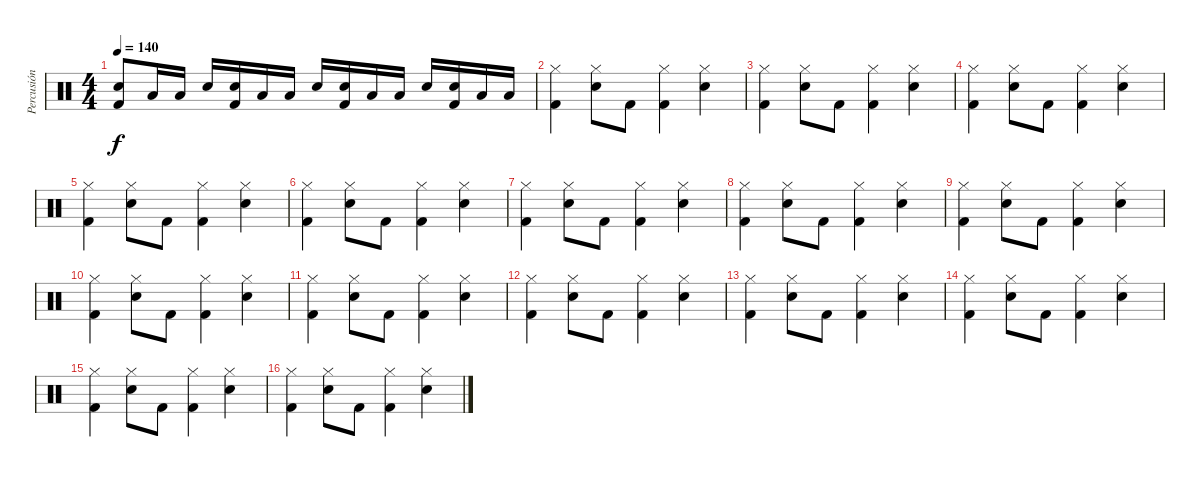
\track ("Percusión" "Percusión") {instrument percussion}
\staff {score}
\articulation defaults
\ts (4 4)
\tempo 140
\clef neutral
\ks c
("Snare (hit) 2" "Kick (hit) 2").8{dy f} "Low Floor Tom (hit)".16 "Low Floor Tom (hit)".16 "Snare (hit) 2".16 ("Snare (hit) 2" "Kick (hit) 2").16 "Low Floor Tom (hit)".16 "Low Floor Tom (hit)".16 "Snare (hit) 2".16 ("Snare (hit) 2" "Kick (hit) 2").16 "Low Floor Tom (hit)".16 "Low Floor Tom (hit)".16 "Snare (hit) 2".16 ("Snare (hit) 2" "Kick (hit) 2").16 "Low Floor Tom (hit)".16 "Low Floor Tom (hit)".16 |
("Hi-Hat (closed)" "Kick (hit) 2").4 ("Hi-Hat (closed)" "Snare (hit) 2").8 "Kick (hit) 2".8 ("Hi-Hat (closed)" "Kick (hit) 2").4 ("Hi-Hat (closed)" "Snare (hit) 2").4 |
("Hi-Hat (closed)" "Kick (hit) 2").4 ("Hi-Hat (closed)" "Snare (hit) 2").8 "Kick (hit) 2".8 ("Hi-Hat (closed)" "Kick (hit) 2").4 ("Hi-Hat (closed)" "Snare (hit) 2").4 |
("Hi-Hat (closed)" "Kick (hit) 2").4 ("Hi-Hat (closed)" "Snare (hit) 2").8 "Kick (hit) 2".8 ("Hi-Hat (closed)" "Kick (hit) 2").4 ("Hi-Hat (closed)" "Snare (hit) 2").4 |
("Hi-Hat (closed)" "Kick (hit) 2").4 ("Hi-Hat (closed)" "Snare (hit) 2").8 "Kick (hit) 2".8 ("Hi-Hat (closed)" "Kick (hit) 2").4 ("Hi-Hat (closed)" "Snare (hit) 2").4 |
("Hi-Hat (closed)" "Kick (hit) 2").4 ("Hi-Hat (closed)" "Snare (hit) 2").8 "Kick (hit) 2".8 ("Hi-Hat (closed)" "Kick (hit) 2").4 ("Hi-Hat (closed)" "Snare (hit) 2").4 |
("Hi-Hat (closed)" "Kick (hit) 2").4 ("Hi-Hat (closed)" "Snare (hit) 2").8 "Kick (hit) 2".8 ("Hi-Hat (closed)" "Kick (hit) 2").4 ("Hi-Hat (closed)" "Snare (hit) 2").4 |
("Hi-Hat (closed)" "Kick (hit) 2").4 ("Hi-Hat (closed)" "Snare (hit) 2").8 "Kick (hit) 2".8 ("Hi-Hat (closed)" "Kick (hit) 2").4 ("Hi-Hat (closed)" "Snare (hit) 2").4 |
("Hi-Hat (closed)" "Kick (hit) 2").4 ("Hi-Hat (closed)" "Snare (hit) 2").8 "Kick (hit) 2".8 ("Hi-Hat (closed)" "Kick (hit) 2").4 ("Hi-Hat (closed)" "Snare (hit) 2").4 |
("Hi-Hat (closed)" "Kick (hit) 2").4 ("Hi-Hat (closed)" "Snare (hit) 2").8 "Kick (hit) 2".8 ("Hi-Hat (closed)" "Kick (hit) 2").4 ("Hi-Hat (closed)" "Snare (hit) 2").4 |
("Hi-Hat (closed)" "Kick (hit) 2").4 ("Hi-Hat (closed)" "Snare (hit) 2").8 "Kick (hit) 2".8 ("Hi-Hat (closed)" "Kick (hit) 2").4 ("Hi-Hat (closed)" "Snare (hit) 2").4 |
("Hi-Hat (closed)" "Kick (hit) 2").4 ("Hi-Hat (closed)" "Snare (hit) 2").8 "Kick (hit) 2".8 ("Hi-Hat (closed)" "Kick (hit) 2").4 ("Hi-Hat (closed)" "Snare (hit) 2").4 |
("Hi-Hat (closed)" "Kick (hit) 2").4 ("Hi-Hat (closed)" "Snare (hit) 2").8 "Kick (hit) 2".8 ("Hi-Hat (closed)" "Kick (hit) 2").4 ("Hi-Hat (closed)" "Snare (hit) 2").4 |
("Hi-Hat (closed)" "Kick (hit) 2").4 ("Hi-Hat (closed)" "Snare (hit) 2").8 "Kick (hit) 2".8 ("Hi-Hat (closed)" "Kick (hit) 2").4 ("Hi-Hat (closed)" "Snare (hit) 2").4 |
("Hi-Hat (closed)" "Kick (hit) 2").4 ("Hi-Hat (closed)" "Snare (hit) 2").8 "Kick (hit) 2".8 ("Hi-Hat (closed)" "Kick (hit) 2").4 ("Hi-Hat (closed)" "Snare (hit) 2").4 |
("Hi-Hat (closed)" "Kick (hit) 2").4 ("Hi-Hat (closed)" "Snare (hit) 2").8 "Kick (hit) 2".8 ("Hi-Hat (closed)" "Kick (hit) 2").4 ("Hi-Hat (closed)" "Snare (hit) 2").4
